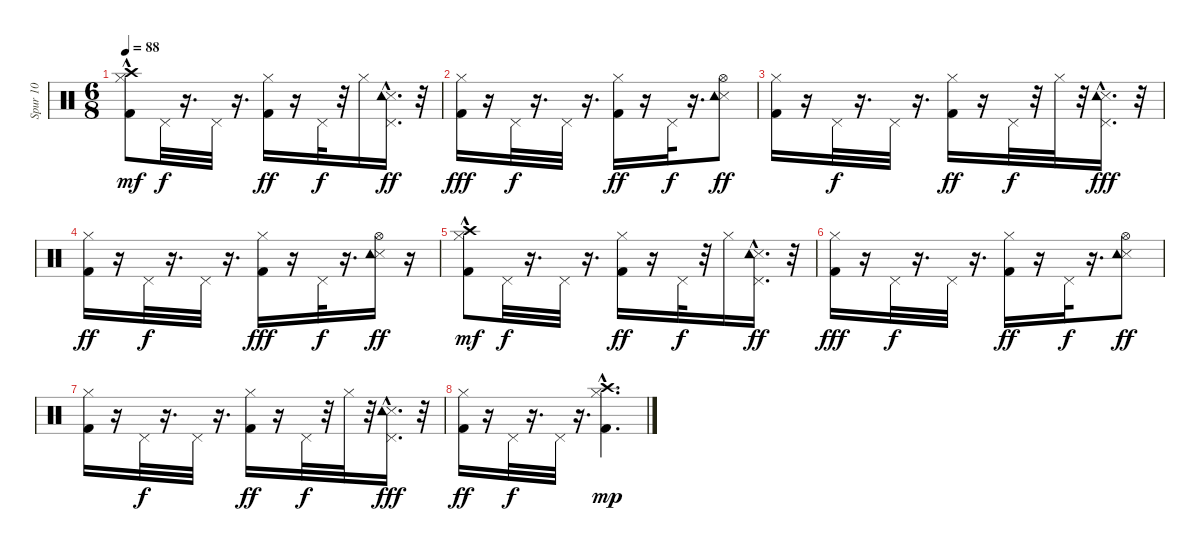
\track ("Spur 10" "Spur 10") {instrument percussion}
\staff {score}
\articulation defaults
\ts (6 8)
\tempo 88
\clef neutral
\ks c
("Kick (hit) 2"{hac} "Hi-Hat (closed)"{hac} "Crash high (hit)").8{dy mf} "Pedal Hi-Hat (hit)".32{dy f} r.16{d} "Pedal Hi-Hat (hit)".32 r.16{d} ("Kick (hit) 2" "Hi-Hat (closed)").16{dy ff} r.16 "Pedal Hi-Hat (hit)".32{dy f} r.32 "Hi-Hat (closed)".16 ("Snare (side stick) 3" "Pedal Hi-Hat (hit)" "Tambourine (hit)"{hac}).16{d dy ff} r.32 |
("Kick (hit) 2" "Hi-Hat (closed)").16{dy fff} r.16 "Pedal Hi-Hat (hit)".32{dy f} r.16{d} "Pedal Hi-Hat (hit)".32 r.16{d} ("Kick (hit) 2" "Hi-Hat (closed)").16{dy ff} r.16 "Pedal Hi-Hat (hit)".32{dy f} r.16{d} ("Snare (side stick) 3" "Hi-Hat (open)" "Tambourine (hit)").8{dy ff} |
("Kick (hit) 2" "Hi-Hat (closed)").16 r.16 "Pedal Hi-Hat (hit)".32{dy f} r.16{d} "Pedal Hi-Hat (hit)".32 r.16{d} ("Kick (hit) 2" "Hi-Hat (closed)").16{dy ff} r.16 "Pedal Hi-Hat (hit)".32{dy f} r.32 "Hi-Hat (closed)".32 r.32 ("Pedal Hi-Hat (hit)" "Snare (side stick) 3" "Tambourine (hit)"{hac}).16{d dy fff} r.32 |
("Kick (hit) 2" "Hi-Hat (closed)").16{dy ff} r.16 "Pedal Hi-Hat (hit)".32{dy f} r.16{d} "Pedal Hi-Hat (hit)".32 r.16{d} ("Kick (hit) 2" "Hi-Hat (closed)").16{dy fff} r.16 "Pedal Hi-Hat (hit)".32{dy f} r.16{d} ("Snare (side stick) 3" "Hi-Hat (open)" "Tambourine (hit)").16{dy ff} r.16 |
("Kick (hit) 2"{hac} "Hi-Hat (closed)"{hac} "Crash high (hit)").8{dy mf} "Pedal Hi-Hat (hit)".32{dy f} r.16{d} "Pedal Hi-Hat (hit)".32 r.16{d} ("Kick (hit) 2" "Hi-Hat (closed)").16{dy ff} r.16 "Pedal Hi-Hat (hit)".32{dy f} r.32 "Hi-Hat (closed)".16 ("Snare (side stick) 3" "Pedal Hi-Hat (hit)" "Tambourine (hit)"{hac}).16{d dy ff} r.32 |
("Kick (hit) 2" "Hi-Hat (closed)").16{dy fff} r.16 "Pedal Hi-Hat (hit)".32{dy f} r.16{d} "Pedal Hi-Hat (hit)".32 r.16{d} ("Kick (hit) 2" "Hi-Hat (closed)").16{dy ff} r.16 "Pedal Hi-Hat (hit)".32{dy f} r.16{d} ("Snare (side stick) 3" "Hi-Hat (open)" "Tambourine (hit)").8{dy ff} |
("Kick (hit) 2" "Hi-Hat (closed)").16 r.16 "Pedal Hi-Hat (hit)".32{dy f} r.16{d} "Pedal Hi-Hat (hit)".32 r.16{d} ("Kick (hit) 2" "Hi-Hat (closed)").16{dy ff} r.16 "Pedal Hi-Hat (hit)".32{dy f} r.32 "Hi-Hat (closed)".32 r.32 ("Pedal Hi-Hat (hit)" "Snare (side stick) 3" "Tambourine (hit)"{hac}).16{d dy fff} r.32 |
("Kick (hit) 2" "Hi-Hat (closed)").16{dy ff} r.16 "Pedal Hi-Hat (hit)".32{dy f} r.16{d} "Pedal Hi-Hat (hit)".32 r.16{d} ("Kick (hit) 2" "Hi-Hat (closed)" "Crash high (hit)"{hac}).4{d dy mp}
